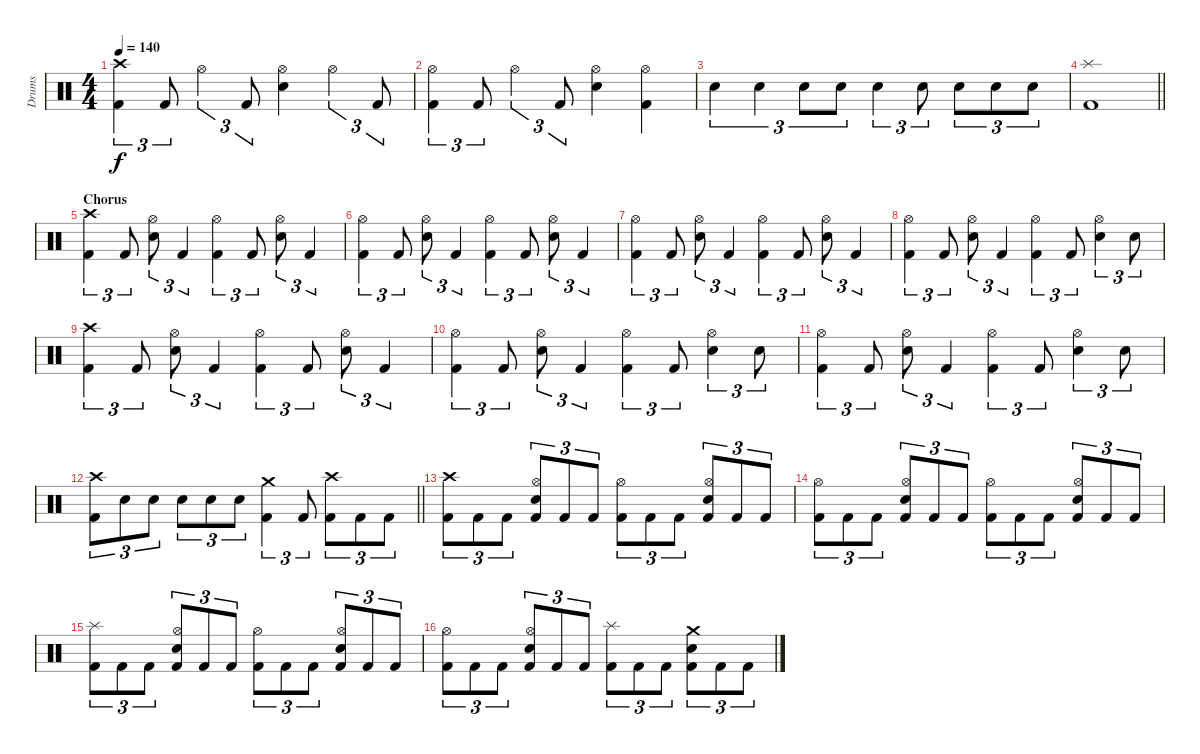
\track ("Drums" "Drums") {instrument percussion}
\staff {score}
\articulation defaults
\ts (4 4)
\tempo 140
\clef neutral
\ks c
("Crash high (hit)" "Kick (hit) 2").4{tu (3 2) dy f} "Kick (hit) 2".8{tu (3 2)} "Hi-Hat (open)".4{tu (3 2)} "Kick (hit) 2".8{tu (3 2)} ("Hi-Hat (open)" "Electric Snare (hit)").4 "Hi-Hat (open)".4{tu (3 2)} "Kick (hit) 2".8{tu (3 2)} |
("Hi-Hat (open)" "Kick (hit) 2").4{tu (3 2)} "Kick (hit) 2".8{tu (3 2)} "Hi-Hat (open)".4{tu (3 2)} "Kick (hit) 2".8{tu (3 2)} ("Hi-Hat (open)" "Electric Snare (hit)").4 ("Hi-Hat (open)" "Kick (hit) 2").4 |
"Electric Snare (hit)".4{tu (3 2)} "Electric Snare (hit)".4{tu (3 2)} "Electric Snare (hit)".8{tu (3 2)} "Electric Snare (hit)".8{tu (3 2)} "Electric Snare (hit)".4{tu (3 2)} "Electric Snare (hit)".8{tu (3 2)} "Electric Snare (hit)".8{tu (3 2)} "Electric Snare (hit)".8{tu (3 2)} "Electric Snare (hit)".8{tu (3 2)} |
\barLineRight lightlight
("Splash (hit)" "Kick (hit) 2").1 |
\section ("" "Chorus")
("Crash high (hit)" "Kick (hit) 2").4{tu (3 2)} "Kick (hit) 2".8{tu (3 2)} ("Hi-Hat (open)" "Electric Snare (hit)").8{tu (3 2)} "Kick (hit) 2".4{tu (3 2)} ("Hi-Hat (open)" "Kick (hit) 2").4{tu (3 2)} "Kick (hit) 2".8{tu (3 2)} ("Hi-Hat (open)" "Electric Snare (hit)").8{tu (3 2)} "Kick (hit) 2".4{tu (3 2)} |
("Hi-Hat (open)" "Kick (hit) 2").4{tu (3 2)} "Kick (hit) 2".8{tu (3 2)} ("Hi-Hat (open)" "Electric Snare (hit)").8{tu (3 2)} "Kick (hit) 2".4{tu (3 2)} ("Hi-Hat (open)" "Kick (hit) 2").4{tu (3 2)} "Kick (hit) 2".8{tu (3 2)} ("Hi-Hat (open)" "Electric Snare (hit)").8{tu (3 2)} "Kick (hit) 2".4{tu (3 2)} |
("Hi-Hat (open)" "Kick (hit) 2").4{tu (3 2)} "Kick (hit) 2".8{tu (3 2)} ("Hi-Hat (open)" "Electric Snare (hit)").8{tu (3 2)} "Kick (hit) 2".4{tu (3 2)} ("Hi-Hat (open)" "Kick (hit) 2").4{tu (3 2)} "Kick (hit) 2".8{tu (3 2)} ("Hi-Hat (open)" "Electric Snare (hit)").8{tu (3 2)} "Kick (hit) 2".4{tu (3 2)} |
("Hi-Hat (open)" "Kick (hit) 2").4{tu (3 2)} "Kick (hit) 2".8{tu (3 2)} ("Hi-Hat (open)" "Electric Snare (hit)").8{tu (3 2)} "Kick (hit) 2".4{tu (3 2)} ("Hi-Hat (open)" "Kick (hit) 2").4{tu (3 2)} "Kick (hit) 2".8{tu (3 2)} ("Hi-Hat (open)" "Electric Snare (hit)").4{tu (3 2)} "Electric Snare (hit)".8{tu (3 2)} |
("Crash high (hit)" "Kick (hit) 2").4{tu (3 2)} "Kick (hit) 2".8{tu (3 2)} ("Hi-Hat (open)" "Electric Snare (hit)").8{tu (3 2)} "Kick (hit) 2".4{tu (3 2)} ("Hi-Hat (open)" "Kick (hit) 2").4{tu (3 2)} "Kick (hit) 2".8{tu (3 2)} ("Hi-Hat (open)" "Electric Snare (hit)").8{tu (3 2)} "Kick (hit) 2".4{tu (3 2)} |
("Hi-Hat (open)" "Kick (hit) 2").4{tu (3 2)} "Kick (hit) 2".8{tu (3 2)} ("Hi-Hat (open)" "Electric Snare (hit)").8{tu (3 2)} "Kick (hit) 2".4{tu (3 2)} ("Hi-Hat (open)" "Kick (hit) 2").4{tu (3 2)} "Kick (hit) 2".8{tu (3 2)} ("Hi-Hat (open)" "Electric Snare (hit)").4{tu (3 2)} "Electric Snare (hit)".8{tu (3 2)} |
("Hi-Hat (open)" "Kick (hit) 2").4{tu (3 2)} "Kick (hit) 2".8{tu (3 2)} ("Hi-Hat (open)" "Electric Snare (hit)").8{tu (3 2)} "Kick (hit) 2".4{tu (3 2)} ("Hi-Hat (open)" "Kick (hit) 2").4{tu (3 2)} "Kick (hit) 2".8{tu (3 2)} ("Hi-Hat (open)" "Electric Snare (hit)").4{tu (3 2)} "Electric Snare (hit)".8{tu (3 2)} |
\barLineRight lightlight
("Crash high (hit)" "Kick (hit) 2").8{tu (3 2)} "Electric Snare (hit)".8{tu (3 2)} "Electric Snare (hit)".8{tu (3 2)} "Electric Snare (hit)".8{tu (3 2)} "Electric Snare (hit)".8{tu (3 2)} "Electric Snare (hit)".8{tu (3 2)} ("Crash medium (hit)" "Kick (hit) 2").4{tu (3 2)} "Kick (hit) 2".8{tu (3 2)} ("Crash high (hit)" "Kick (hit) 2").8{tu (3 2)} "Kick (hit) 2".8{tu (3 2)} "Kick (hit) 2".8{tu (3 2)} |
("Crash high (hit)" "Kick (hit) 2").8{tu (3 2)} "Kick (hit) 2".8{tu (3 2)} "Kick (hit) 2".8{tu (3 2)} ("Hi-Hat (open)" "Electric Snare (hit)" "Kick (hit) 2").8{tu (3 2)} "Kick (hit) 2".8{tu (3 2)} "Kick (hit) 2".8{tu (3 2)} ("Hi-Hat (open)" "Kick (hit) 2").8{tu (3 2)} "Kick (hit) 2".8{tu (3 2)} "Kick (hit) 2".8{tu (3 2)} ("Hi-Hat (open)" "Electric Snare (hit)" "Kick (hit) 2").8{tu (3 2)} "Kick (hit) 2".8{tu (3 2)} "Kick (hit) 2".8{tu (3 2)} |
("Hi-Hat (open)" "Kick (hit) 2").8{tu (3 2)} "Kick (hit) 2".8{tu (3 2)} "Kick (hit) 2".8{tu (3 2)} ("Hi-Hat (open)" "Electric Snare (hit)" "Kick (hit) 2").8{tu (3 2)} "Kick (hit) 2".8{tu (3 2)} "Kick (hit) 2".8{tu (3 2)} ("Hi-Hat (open)" "Kick (hit) 2").8{tu (3 2)} "Kick (hit) 2".8{tu (3 2)} "Kick (hit) 2".8{tu (3 2)} ("Hi-Hat (open)" "Electric Snare (hit)" "Kick (hit) 2").8{tu (3 2)} "Kick (hit) 2".8{tu (3 2)} "Kick (hit) 2".8{tu (3 2)} |
("Splash (hit)" "Kick (hit) 2").8{tu (3 2)} "Kick (hit) 2".8{tu (3 2)} "Kick (hit) 2".8{tu (3 2)} ("Hi-Hat (open)" "Electric Snare (hit)" "Kick (hit) 2").8{tu (3 2)} "Kick (hit) 2".8{tu (3 2)} "Kick (hit) 2".8{tu (3 2)} ("Hi-Hat (open)" "Kick (hit) 2").8{tu (3 2)} "Kick (hit) 2".8{tu (3 2)} "Kick (hit) 2".8{tu (3 2)} ("Hi-Hat (open)" "Electric Snare (hit)" "Kick (hit) 2").8{tu (3 2)} "Kick (hit) 2".8{tu (3 2)} "Kick (hit) 2".8{tu (3 2)} |
("Hi-Hat (open)" "Kick (hit) 2").8{tu (3 2)} "Kick (hit) 2".8{tu (3 2)} "Kick (hit) 2".8{tu (3 2)} ("Hi-Hat (open)" "Electric Snare (hit)" "Kick (hit) 2").8{tu (3 2)} "Kick (hit) 2".8{tu (3 2)} "Kick (hit) 2".8{tu (3 2)} ("Splash (hit)" "Kick (hit) 2").8{tu (3 2)} "Kick (hit) 2".8{tu (3 2)} "Kick (hit) 2".8{tu (3 2)} ("Crash medium (hit)" "Electric Snare (hit)" "Kick (hit) 2").8{tu (3 2)} "Kick (hit) 2".8{tu (3 2)} "Kick (hit) 2".8{tu (3 2)}
